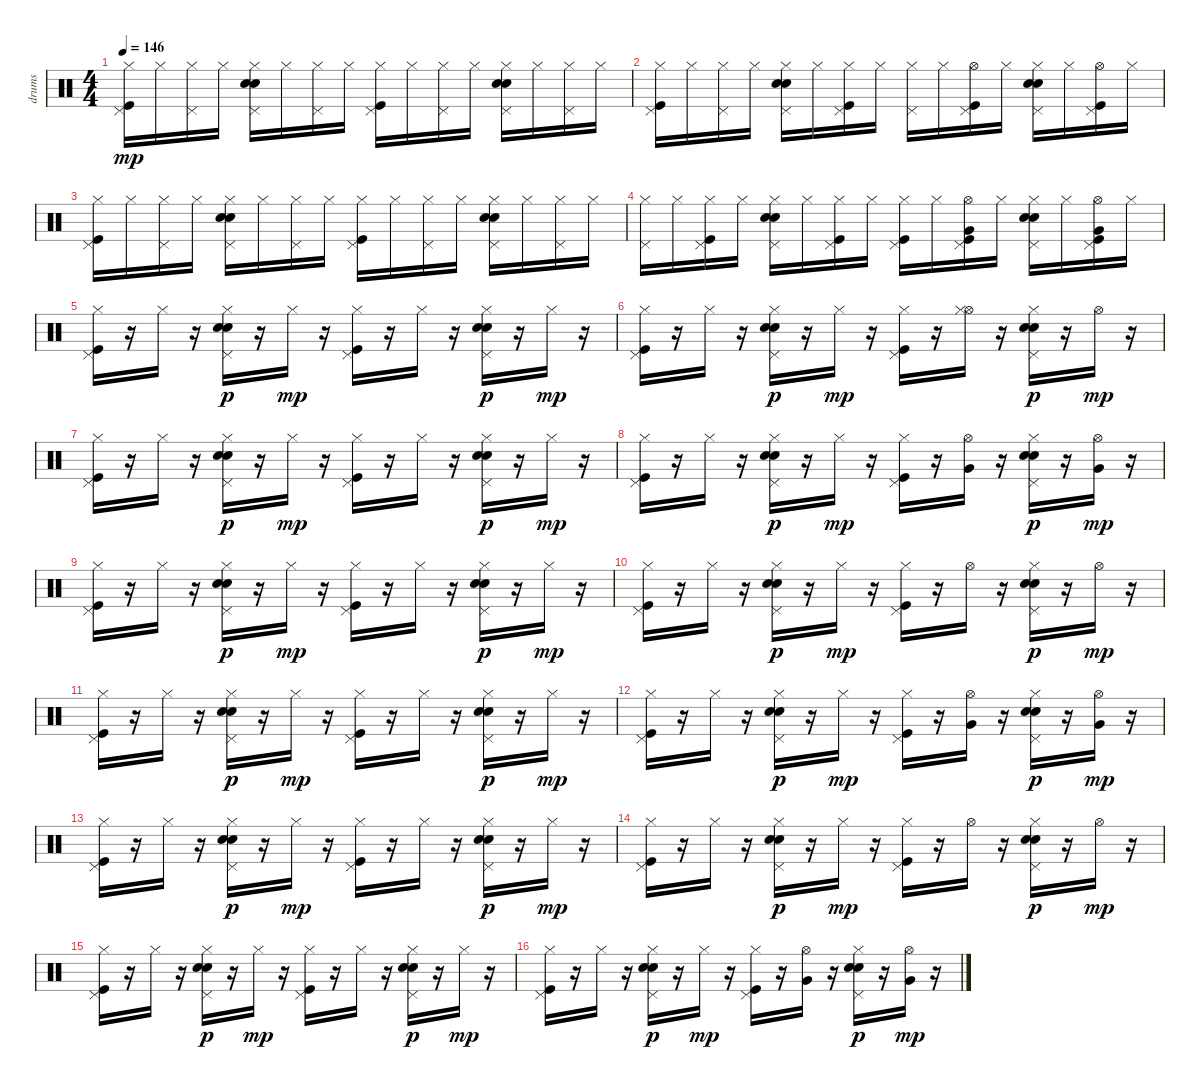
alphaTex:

\track ("drums" "drums") {instrument percussion}
\staff {score}
\articulation defaults
\ts (4 4)
\tempo 146
\clef neutral
\ks c
("Kick (hit)" "Pedal Hi-Hat (hit)" "Hi-Hat (closed)").16{dy mp} "Hi-Hat (closed)".16 ("Hi-Hat (closed)" "Pedal Hi-Hat (hit)").16 "Hi-Hat (closed)".16 ("Snare (hit) 2" "Hi-Hat (closed)" "Electric Snare (hit)" "Pedal Hi-Hat (hit)").16 "Hi-Hat (closed)".16 ("Hi-Hat (closed)" "Pedal Hi-Hat (hit)").16 "Hi-Hat (closed)".16 ("Kick (hit)" "Hi-Hat (closed)" "Pedal Hi-Hat (hit)").16 "Hi-Hat (closed)".16 ("Hi-Hat (closed)" "Pedal Hi-Hat (hit)").16 "Hi-Hat (closed)".16 ("Snare (hit) 2" "Hi-Hat (closed)" "Electric Snare (hit)" "Pedal Hi-Hat (hit)").16 "Hi-Hat (closed)".16 ("Hi-Hat (closed)" "Pedal Hi-Hat (hit)").16 "Hi-Hat (closed)".16 |
("Kick (hit)" "Hi-Hat (closed)" "Pedal Hi-Hat (hit)").16 "Hi-Hat (closed)".16 ("Hi-Hat (closed)" "Pedal Hi-Hat (hit)").16 "Hi-Hat (closed)".16 ("Snare (hit) 2" "Hi-Hat (closed)" "Electric Snare (hit)" "Pedal Hi-Hat (hit)").16 "Hi-Hat (closed)".16 ("Hi-Hat (closed)" "Pedal Hi-Hat (hit)" "Kick (hit)").16 "Hi-Hat (closed)".16 ("Hi-Hat (closed)" "Pedal Hi-Hat (hit)").16 "Hi-Hat (closed)".16 ("Hi-Hat (open)" "Kick (hit)" "Pedal Hi-Hat (hit)").16 "Hi-Hat (closed)".16 ("Snare (hit) 2" "Hi-Hat (closed)" "Electric Snare (hit)" "Pedal Hi-Hat (hit)").16 "Hi-Hat (closed)".16 ("Hi-Hat (open)" "Kick (hit)" "Pedal Hi-Hat (hit)").16 "Hi-Hat (closed)".16 |
("Kick (hit)" "Hi-Hat (closed)" "Pedal Hi-Hat (hit)").16 "Hi-Hat (closed)".16 ("Hi-Hat (closed)" "Pedal Hi-Hat (hit)").16 "Hi-Hat (closed)".16 ("Electric Snare (hit)" "Snare (hit) 2" "Pedal Hi-Hat (hit)" "Hi-Hat (closed)").16 "Hi-Hat (closed)".16 ("Hi-Hat (closed)" "Pedal Hi-Hat (hit)").16 "Hi-Hat (closed)".16 ("Kick (hit)" "Hi-Hat (closed)" "Pedal Hi-Hat (hit)").16 "Hi-Hat (closed)".16 ("Hi-Hat (closed)" "Pedal Hi-Hat (hit)").16 "Hi-Hat (closed)".16 ("Snare (hit) 2" "Hi-Hat (closed)" "Electric Snare (hit)" "Pedal Hi-Hat (hit)").16 "Hi-Hat (closed)".16 ("Hi-Hat (closed)" "Pedal Hi-Hat (hit)").16 "Hi-Hat (closed)".16 |
("Hi-Hat (closed)" "Pedal Hi-Hat (hit)").16 "Hi-Hat (closed)".16 ("Hi-Hat (closed)" "Pedal Hi-Hat (hit)" "Kick (hit)").16 "Hi-Hat (closed)".16 ("Snare (hit) 2" "Hi-Hat (closed)" "Electric Snare (hit)" "Pedal Hi-Hat (hit)").16 "Hi-Hat (closed)".16 ("Hi-Hat (closed)" "Pedal Hi-Hat (hit)" "Kick (hit)").16 "Hi-Hat (closed)".16 ("Kick (hit)" "Hi-Hat (closed)" "Pedal Hi-Hat (hit)").16 "Hi-Hat (closed)".16 ("Hi-Hat (open)" "Very Low Tom (hit)" "Kick (hit)" "Pedal Hi-Hat (hit)").16 "Hi-Hat (closed)".16 ("Snare (hit) 2" "Hi-Hat (closed)" "Electric Snare (hit)" "Pedal Hi-Hat (hit)").16 "Hi-Hat (closed)".16 ("Hi-Hat (open)" "Very Low Tom (hit)" "Kick (hit)" "Pedal Hi-Hat (hit)").16 "Hi-Hat (closed)".16 |
("Kick (hit)" "Pedal Hi-Hat (hit)" "Hi-Hat (closed)").16 r.16 "Hi-Hat (closed)".16 r.16 ("Pedal Hi-Hat (hit)" "Snare (hit) 2" "Hi-Hat (closed)" "Electric Snare (hit)").16{dy p} r.16 "Hi-Hat (closed)".16{dy mp} r.16 ("Kick (hit)" "Pedal Hi-Hat (hit)" "Hi-Hat (closed)").16 r.16 "Hi-Hat (closed)".16 r.16 ("Pedal Hi-Hat (hit)" "Snare (hit) 2" "Hi-Hat (closed)" "Electric Snare (hit)").16{dy p} r.16 "Hi-Hat (closed)".16{dy mp} r.16 |
("Kick (hit)" "Pedal Hi-Hat (hit)" "Hi-Hat (closed)").16 r.16 "Hi-Hat (closed)".16 r.16 ("Pedal Hi-Hat (hit)" "Snare (hit) 2" "Hi-Hat (closed)" "Electric Snare (hit)").16{dy p} r.16 "Hi-Hat (closed)".16{dy mp} r.16 ("Kick (hit)" "Pedal Hi-Hat (hit)" "Hi-Hat (closed)").16 r.16 ("Hi-Hat (open)" "Hi-Hat (closed)").16 r.16 ("Pedal Hi-Hat (hit)" "Snare (hit) 2" "Hi-Hat (closed)" "Electric Snare (hit)").16{dy p} r.16 "Hi-Hat (open)".16{dy mp} r.16 |
("Kick (hit)" "Pedal Hi-Hat (hit)" "Hi-Hat (closed)").16 r.16 "Hi-Hat (closed)".16 r.16 ("Pedal Hi-Hat (hit)" "Snare (hit) 2" "Hi-Hat (closed)" "Electric Snare (hit)").16{dy p} r.16 "Hi-Hat (closed)".16{dy mp} r.16 ("Kick (hit)" "Pedal Hi-Hat (hit)" "Hi-Hat (closed)").16 r.16 "Hi-Hat (closed)".16 r.16 ("Pedal Hi-Hat (hit)" "Snare (hit) 2" "Hi-Hat (closed)" "Electric Snare (hit)").16{dy p} r.16 "Hi-Hat (closed)".16{dy mp} r.16 |
("Kick (hit)" "Pedal Hi-Hat (hit)" "Hi-Hat (closed)").16 r.16 "Hi-Hat (closed)".16 r.16 ("Pedal Hi-Hat (hit)" "Snare (hit) 2" "Hi-Hat (closed)" "Electric Snare (hit)").16{dy p} r.16 "Hi-Hat (closed)".16{dy mp} r.16 ("Kick (hit)" "Pedal Hi-Hat (hit)" "Hi-Hat (closed)").16 r.16 ("Hi-Hat (open)" "Very Low Tom (hit)").16 r.16 ("Pedal Hi-Hat (hit)" "Snare (hit) 2" "Hi-Hat (closed)" "Electric Snare (hit)").16{dy p} r.16 ("Hi-Hat (open)" "Very Low Tom (hit)").16{dy mp} r.16 |
("Kick (hit)" "Pedal Hi-Hat (hit)" "Hi-Hat (closed)").16 r.16 "Hi-Hat (closed)".16 r.16 ("Pedal Hi-Hat (hit)" "Snare (hit) 2" "Hi-Hat (closed)" "Electric Snare (hit)").16{dy p} r.16 "Hi-Hat (closed)".16{dy mp} r.16 ("Kick (hit)" "Pedal Hi-Hat (hit)" "Hi-Hat (closed)").16 r.16 "Hi-Hat (closed)".16 r.16 ("Pedal Hi-Hat (hit)" "Snare (hit) 2" "Hi-Hat (closed)" "Electric Snare (hit)").16{dy p} r.16 "Hi-Hat (closed)".16{dy mp} r.16 |
("Kick (hit)" "Pedal Hi-Hat (hit)" "Hi-Hat (closed)").16 r.16 "Hi-Hat (closed)".16 r.16 ("Pedal Hi-Hat (hit)" "Snare (hit) 2" "Hi-Hat (closed)" "Electric Snare (hit)").16{dy p} r.16 "Hi-Hat (closed)".16{dy mp} r.16 ("Kick (hit)" "Pedal Hi-Hat (hit)" "Hi-Hat (closed)").16 r.16 "Hi-Hat (open)".16 r.16 ("Pedal Hi-Hat (hit)" "Snare (hit) 2" "Hi-Hat (closed)" "Electric Snare (hit)").16{dy p} r.16 "Hi-Hat (open)".16{dy mp} r.16 |
("Kick (hit)" "Pedal Hi-Hat (hit)" "Hi-Hat (closed)").16 r.16 "Hi-Hat (closed)".16 r.16 ("Pedal Hi-Hat (hit)" "Snare (hit) 2" "Hi-Hat (closed)" "Electric Snare (hit)").16{dy p} r.16 "Hi-Hat (closed)".16{dy mp} r.16 ("Kick (hit)" "Pedal Hi-Hat (hit)" "Hi-Hat (closed)").16 r.16 "Hi-Hat (closed)".16 r.16 ("Pedal Hi-Hat (hit)" "Snare (hit) 2" "Hi-Hat (closed)" "Electric Snare (hit)").16{dy p} r.16 "Hi-Hat (closed)".16{dy mp} r.16 |
("Kick (hit)" "Pedal Hi-Hat (hit)" "Hi-Hat (closed)").16 r.16 "Hi-Hat (closed)".16 r.16 ("Pedal Hi-Hat (hit)" "Snare (hit) 2" "Hi-Hat (closed)" "Electric Snare (hit)").16{dy p} r.16 "Hi-Hat (closed)".16{dy mp} r.16 ("Kick (hit)" "Pedal Hi-Hat (hit)" "Hi-Hat (closed)").16 r.16 ("Hi-Hat (open)" "Very Low Tom (hit)").16 r.16 ("Pedal Hi-Hat (hit)" "Snare (hit) 2" "Hi-Hat (closed)" "Electric Snare (hit)").16{dy p} r.16 ("Hi-Hat (open)" "Very Low Tom (hit)").16{dy mp} r.16 |
("Kick (hit)" "Pedal Hi-Hat (hit)" "Hi-Hat (closed)").16 r.16 "Hi-Hat (closed)".16 r.16 ("Pedal Hi-Hat (hit)" "Snare (hit) 2" "Hi-Hat (closed)" "Electric Snare (hit)").16{dy p} r.16 "Hi-Hat (closed)".16{dy mp} r.16 ("Kick (hit)" "Pedal Hi-Hat (hit)" "Hi-Hat (closed)").16 r.16 "Hi-Hat (closed)".16 r.16 ("Pedal Hi-Hat (hit)" "Snare (hit) 2" "Hi-Hat (closed)" "Electric Snare (hit)").16{dy p} r.16 "Hi-Hat (closed)".16{dy mp} r.16 |
("Kick (hit)" "Pedal Hi-Hat (hit)" "Hi-Hat (closed)").16 r.16 "Hi-Hat (closed)".16 r.16 ("Pedal Hi-Hat (hit)" "Snare (hit) 2" "Hi-Hat (closed)" "Electric Snare (hit)").16{dy p} r.16 "Hi-Hat (closed)".16{dy mp} r.16 ("Kick (hit)" "Pedal Hi-Hat (hit)" "Hi-Hat (closed)").16 r.16 "Hi-Hat (open)".16 r.16 ("Pedal Hi-Hat (hit)" "Snare (hit) 2" "Hi-Hat (closed)" "Electric Snare (hit)").16{dy p} r.16 "Hi-Hat (open)".16{dy mp} r.16 |
("Kick (hit)" "Pedal Hi-Hat (hit)" "Hi-Hat (closed)").16 r.16 "Hi-Hat (closed)".16 r.16 ("Pedal Hi-Hat (hit)" "Snare (hit) 2" "Hi-Hat (closed)" "Electric Snare (hit)").16{dy p} r.16 "Hi-Hat (closed)".16{dy mp} r.16 ("Kick (hit)" "Pedal Hi-Hat (hit)" "Hi-Hat (closed)").16 r.16 "Hi-Hat (closed)".16 r.16 ("Pedal Hi-Hat (hit)" "Snare (hit) 2" "Hi-Hat (closed)" "Electric Snare (hit)").16{dy p} r.16 "Hi-Hat (closed)".16{dy mp} r.16 |
("Kick (hit)" "Pedal Hi-Hat (hit)" "Hi-Hat (closed)").16 r.16 "Hi-Hat (closed)".16 r.16 ("Pedal Hi-Hat (hit)" "Snare (hit) 2" "Hi-Hat (closed)" "Electric Snare (hit)").16{dy p} r.16 "Hi-Hat (closed)".16{dy mp} r.16 ("Kick (hit)" "Pedal Hi-Hat (hit)" "Hi-Hat (closed)").16 r.16 ("Hi-Hat (open)" "Very Low Tom (hit)").16 r.16 ("Pedal Hi-Hat (hit)" "Snare (hit) 2" "Hi-Hat (closed)" "Electric Snare (hit)").16{dy p} r.16 ("Hi-Hat (open)" "Very Low Tom (hit)").16{dy mp} r.16
